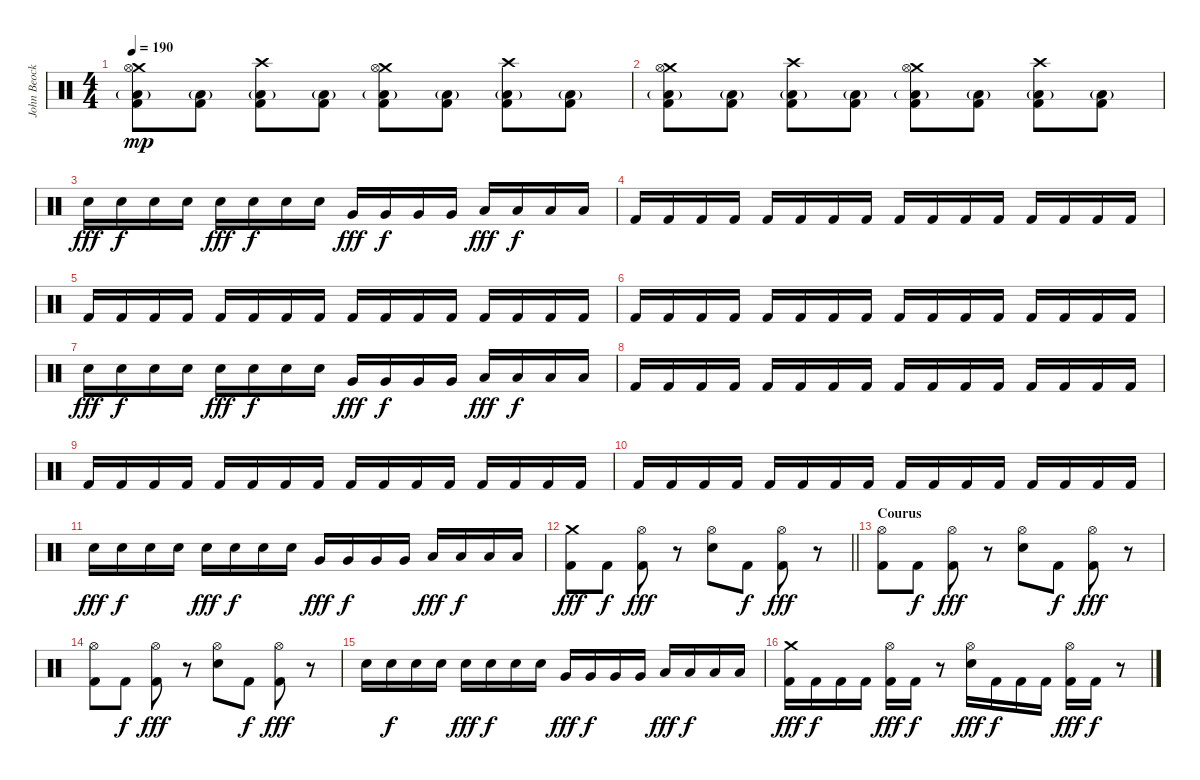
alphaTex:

\track ("John Beocklin (Drums)" "John Beock") {instrument percussion}
\staff {score}
\articulation defaults
\ts (4 4)
\tempo 190
\clef neutral
\ks c
("Crash medium (hit)" "Kick (hit) 2" "Hi-Hat (open)" "Low Floor Tom (hit)"{g}).8{dy mp} ("Kick (hit) 2" "Low Floor Tom (hit)"{g}).8 ("Crash high (hit)" "Kick (hit) 2" "Low Floor Tom (hit)"{g}).8 ("Kick (hit) 2" "Low Floor Tom (hit)"{g}).8 ("Crash medium (hit)" "Kick (hit) 2" "Hi-Hat (open)" "Low Floor Tom (hit)"{g}).8 ("Kick (hit) 2" "Low Floor Tom (hit)"{g}).8 ("Crash high (hit)" "Kick (hit) 2" "Low Floor Tom (hit)"{g}).8 ("Kick (hit) 2" "Low Floor Tom (hit)"{g}).8 |
("Crash medium (hit)" "Kick (hit) 2" "Hi-Hat (open)" "Low Floor Tom (hit)"{g}).8 ("Kick (hit) 2" "Low Floor Tom (hit)"{g}).8 ("Crash high (hit)" "Kick (hit) 2" "Low Floor Tom (hit)"{g}).8 ("Kick (hit) 2" "Low Floor Tom (hit)"{g}).8 ("Crash medium (hit)" "Kick (hit) 2" "Hi-Hat (open)" "Low Floor Tom (hit)"{g}).8 ("Kick (hit) 2" "Low Floor Tom (hit)"{g}).8 ("Crash high (hit)" "Kick (hit) 2" "Low Floor Tom (hit)"{g}).8 ("Kick (hit) 2" "Low Floor Tom (hit)"{g}).8 |
"Snare (hit) 2".16{dy fff} "Snare (hit) 2".16{dy f} "Snare (hit) 2".16 "Snare (hit) 2".16 "Snare (hit) 2".16{dy fff} "Snare (hit) 2".16{dy f} "Snare (hit) 2".16 "Snare (hit) 2".16 "Very Low Tom (hit)".16{dy fff} "Very Low Tom (hit)".16{dy f} "Very Low Tom (hit)".16 "Very Low Tom (hit)".16 "Low Floor Tom (hit)".16{dy fff} "Low Floor Tom (hit)".16{dy f} "Low Floor Tom (hit)".16 "Low Floor Tom (hit)".16 |
"Kick (hit) 2".16 "Kick (hit) 2".16 "Kick (hit) 2".16 "Kick (hit) 2".16 "Kick (hit) 2".16 "Kick (hit) 2".16 "Kick (hit) 2".16 "Kick (hit) 2".16 "Kick (hit) 2".16 "Kick (hit) 2".16 "Kick (hit) 2".16 "Kick (hit) 2".16 "Kick (hit) 2".16 "Kick (hit) 2".16 "Kick (hit) 2".16 "Kick (hit) 2".16 |
"Kick (hit) 2".16 "Kick (hit) 2".16 "Kick (hit) 2".16 "Kick (hit) 2".16 "Kick (hit) 2".16 "Kick (hit) 2".16 "Kick (hit) 2".16 "Kick (hit) 2".16 "Kick (hit) 2".16 "Kick (hit) 2".16 "Kick (hit) 2".16 "Kick (hit) 2".16 "Kick (hit) 2".16 "Kick (hit) 2".16 "Kick (hit) 2".16 "Kick (hit) 2".16 |
"Kick (hit) 2".16 "Kick (hit) 2".16 "Kick (hit) 2".16 "Kick (hit) 2".16 "Kick (hit) 2".16 "Kick (hit) 2".16 "Kick (hit) 2".16 "Kick (hit) 2".16 "Kick (hit) 2".16 "Kick (hit) 2".16 "Kick (hit) 2".16 "Kick (hit) 2".16 "Kick (hit) 2".16 "Kick (hit) 2".16 "Kick (hit) 2".16 "Kick (hit) 2".16 |
"Snare (hit) 2".16{dy fff} "Snare (hit) 2".16{dy f} "Snare (hit) 2".16 "Snare (hit) 2".16 "Snare (hit) 2".16{dy fff} "Snare (hit) 2".16{dy f} "Snare (hit) 2".16 "Snare (hit) 2".16 "Very Low Tom (hit)".16{dy fff} "Very Low Tom (hit)".16{dy f} "Very Low Tom (hit)".16 "Very Low Tom (hit)".16 "Low Floor Tom (hit)".16{dy fff} "Low Floor Tom (hit)".16{dy f} "Low Floor Tom (hit)".16 "Low Floor Tom (hit)".16 |
"Kick (hit) 2".16 "Kick (hit) 2".16 "Kick (hit) 2".16 "Kick (hit) 2".16 "Kick (hit) 2".16 "Kick (hit) 2".16 "Kick (hit) 2".16 "Kick (hit) 2".16 "Kick (hit) 2".16 "Kick (hit) 2".16 "Kick (hit) 2".16 "Kick (hit) 2".16 "Kick (hit) 2".16 "Kick (hit) 2".16 "Kick (hit) 2".16 "Kick (hit) 2".16 |
"Kick (hit) 2".16 "Kick (hit) 2".16 "Kick (hit) 2".16 "Kick (hit) 2".16 "Kick (hit) 2".16 "Kick (hit) 2".16 "Kick (hit) 2".16 "Kick (hit) 2".16 "Kick (hit) 2".16 "Kick (hit) 2".16 "Kick (hit) 2".16 "Kick (hit) 2".16 "Kick (hit) 2".16 "Kick (hit) 2".16 "Kick (hit) 2".16 "Kick (hit) 2".16 |
"Kick (hit) 2".16 "Kick (hit) 2".16 "Kick (hit) 2".16 "Kick (hit) 2".16 "Kick (hit) 2".16 "Kick (hit) 2".16 "Kick (hit) 2".16 "Kick (hit) 2".16 "Kick (hit) 2".16 "Kick (hit) 2".16 "Kick (hit) 2".16 "Kick (hit) 2".16 "Kick (hit) 2".16 "Kick (hit) 2".16 "Kick (hit) 2".16 "Kick (hit) 2".16 |
"Snare (hit) 2".16{dy fff} "Snare (hit) 2".16{dy f} "Snare (hit) 2".16 "Snare (hit) 2".16 "Snare (hit) 2".16{dy fff} "Snare (hit) 2".16{dy f} "Snare (hit) 2".16 "Snare (hit) 2".16 "Very Low Tom (hit)".16{dy fff} "Very Low Tom (hit)".16{dy f} "Very Low Tom (hit)".16 "Very Low Tom (hit)".16 "Low Floor Tom (hit)".16{dy fff} "Low Floor Tom (hit)".16{dy f} "Low Floor Tom (hit)".16 "Low Floor Tom (hit)".16 |
\barLineRight lightlight
("Crash medium (hit)" "Kick (hit) 2").8{dy fff} "Kick (hit) 2".8{dy f} ("Hi-Hat (open)" "Kick (hit) 2").8{dy fff} r.8 ("Hi-Hat (open)" "Snare (hit) 2").8 "Kick (hit) 2".8{dy f} ("Hi-Hat (open)" "Kick (hit) 2").8{dy fff} r.8 |
\section ("" "Courus")
("Hi-Hat (open)" "Kick (hit) 2").8 "Kick (hit) 2".8{dy f} ("Hi-Hat (open)" "Kick (hit) 2").8{dy fff} r.8 ("Hi-Hat (open)" "Snare (hit) 2").8 "Kick (hit) 2".8{dy f} ("Hi-Hat (open)" "Kick (hit) 2").8{dy fff} r.8 |
("Hi-Hat (open)" "Kick (hit) 2").8 "Kick (hit) 2".8{dy f} ("Hi-Hat (open)" "Kick (hit) 2").8{dy fff} r.8 ("Hi-Hat (open)" "Snare (hit) 2").8 "Kick (hit) 2".8{dy f} ("Hi-Hat (open)" "Kick (hit) 2").8{dy fff} r.8 |
"Snare (hit) 2".16 "Snare (hit) 2".16{dy f} "Snare (hit) 2".16 "Snare (hit) 2".16 "Snare (hit) 2".16{dy fff} "Snare (hit) 2".16{dy f} "Snare (hit) 2".16 "Snare (hit) 2".16 "Very Low Tom (hit)".16{dy fff} "Very Low Tom (hit)".16{dy f} "Very Low Tom (hit)".16 "Very Low Tom (hit)".16 "Low Floor Tom (hit)".16{dy fff} "Low Floor Tom (hit)".16{dy f} "Low Floor Tom (hit)".16 "Low Floor Tom (hit)".16 |
("Crash medium (hit)" "Kick (hit) 2").16{dy fff} "Kick (hit) 2".16{dy f} "Kick (hit) 2".16 "Kick (hit) 2".16 ("Hi-Hat (open)" "Kick (hit) 2").16{dy fff} "Kick (hit) 2".16{dy f} r.8 ("Hi-Hat (open)" "Snare (hit) 2").16{dy fff} "Kick (hit) 2".16{dy f} "Kick (hit) 2".16 "Kick (hit) 2".16 ("Hi-Hat (open)" "Kick (hit) 2").16{dy fff} "Kick (hit) 2".16{dy f} r.8
